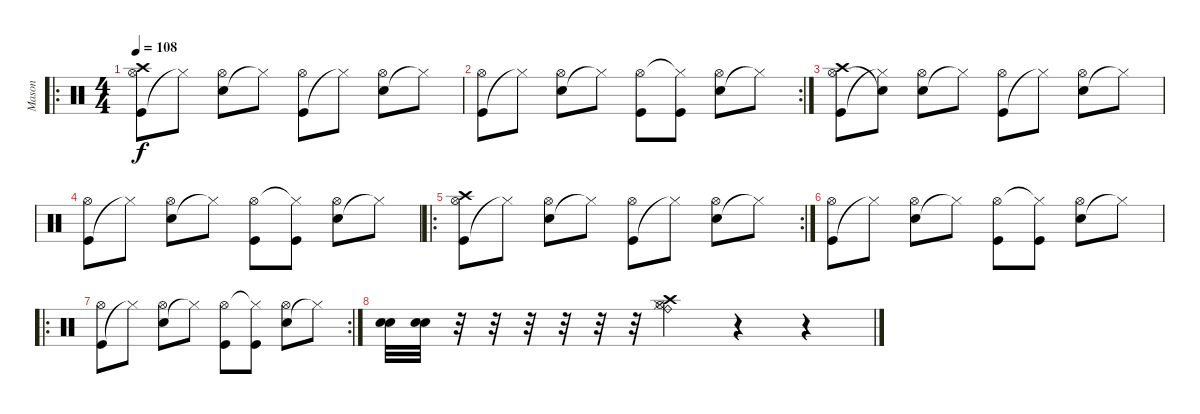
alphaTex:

\track ("Mason" "Mason") {instrument percussion}
\staff {score}
\articulation defaults
\ro
\ts (4 4)
\tempo 108
\clef neutral
\ks c
("Kick (hit)" "Hi-Hat (open)" "Crash high (hit)").8{dy f} "Hi-Hat (closed)"{t}.8 ("Snare (hit) 2" "Hi-Hat (open)").8 "Hi-Hat (closed)"{t}.8 ("Kick (hit)" "Hi-Hat (open)").8 "Hi-Hat (closed)"{t}.8 ("Snare (hit) 2" "Hi-Hat (open)").8 "Hi-Hat (closed)"{t}.8 |
\rc 2
("Kick (hit)" "Hi-Hat (open)").8 "Hi-Hat (closed)"{t}.8 ("Snare (hit) 2" "Hi-Hat (open)").8 "Hi-Hat (closed)"{t}.8 ("Kick (hit)" "Hi-Hat (open)").8 ("Kick (hit)" "Hi-Hat (closed)"{t}).8 ("Snare (hit) 2" "Hi-Hat (open)").8 "Hi-Hat (closed)"{t}.8 |
("Kick (hit)" "Hi-Hat (open)" "Crash high (hit)").8 ("Hi-Hat (closed)"{t} "Snare (hit)"{t}).8 ("Snare (hit) 2" "Hi-Hat (open)").8 "Hi-Hat (closed)"{t}.8 ("Kick (hit)" "Hi-Hat (open)").8 "Hi-Hat (closed)"{t}.8 ("Snare (hit) 2" "Hi-Hat (open)").8 "Hi-Hat (closed)"{t}.8 |
("Kick (hit)" "Hi-Hat (open)").8 "Hi-Hat (closed)"{t}.8 ("Snare (hit) 2" "Hi-Hat (open)").8 "Hi-Hat (closed)"{t}.8 ("Kick (hit)" "Hi-Hat (open)").8 ("Kick (hit)" "Hi-Hat (closed)"{t}).8 ("Snare (hit) 2" "Hi-Hat (open)").8 "Hi-Hat (closed)"{t}.8 |
\ro
\rc 2
("Kick (hit)" "Hi-Hat (open)" "Crash high (hit)").8 "Hi-Hat (closed)"{t}.8 ("Snare (hit) 2" "Hi-Hat (open)").8 "Hi-Hat (closed)"{t}.8 ("Kick (hit)" "Hi-Hat (open)").8 "Hi-Hat (closed)"{t}.8 ("Snare (hit) 2" "Hi-Hat (open)").8 "Hi-Hat (closed)"{t}.8 |
("Kick (hit)" "Hi-Hat (open)").8 "Hi-Hat (closed)"{t}.8 ("Snare (hit) 2" "Hi-Hat (open)").8 "Hi-Hat (closed)"{t}.8 ("Kick (hit)" "Hi-Hat (open)").8 ("Kick (hit)" "Hi-Hat (closed)"{t}).8 ("Snare (hit) 2" "Hi-Hat (open)").8 "Hi-Hat (closed)"{t}.8 |
\ro
\rc 2
("Kick (hit)" "Hi-Hat (open)").8 "Hi-Hat (closed)"{t}.8 ("Snare (hit) 2" "Hi-Hat (open)").8 "Hi-Hat (closed)"{t}.8 ("Kick (hit)" "Hi-Hat (open)").8 ("Kick (hit)" "Hi-Hat (closed)"{t}).8 ("Snare (hit) 2" "Hi-Hat (open)").8 "Hi-Hat (closed)"{t}.8 |
("Snare (hit) 2" "Snare (hit) 2").32 ("Snare (hit) 2" "Snare (hit) 2").32 r.32 r.32 r.32 r.32 r.32 r.32 ("Hi-Hat (closed)" "Ride (bell)" "Hi-Hat (open)" "Crash high (hit)").4 r.4 r.4
